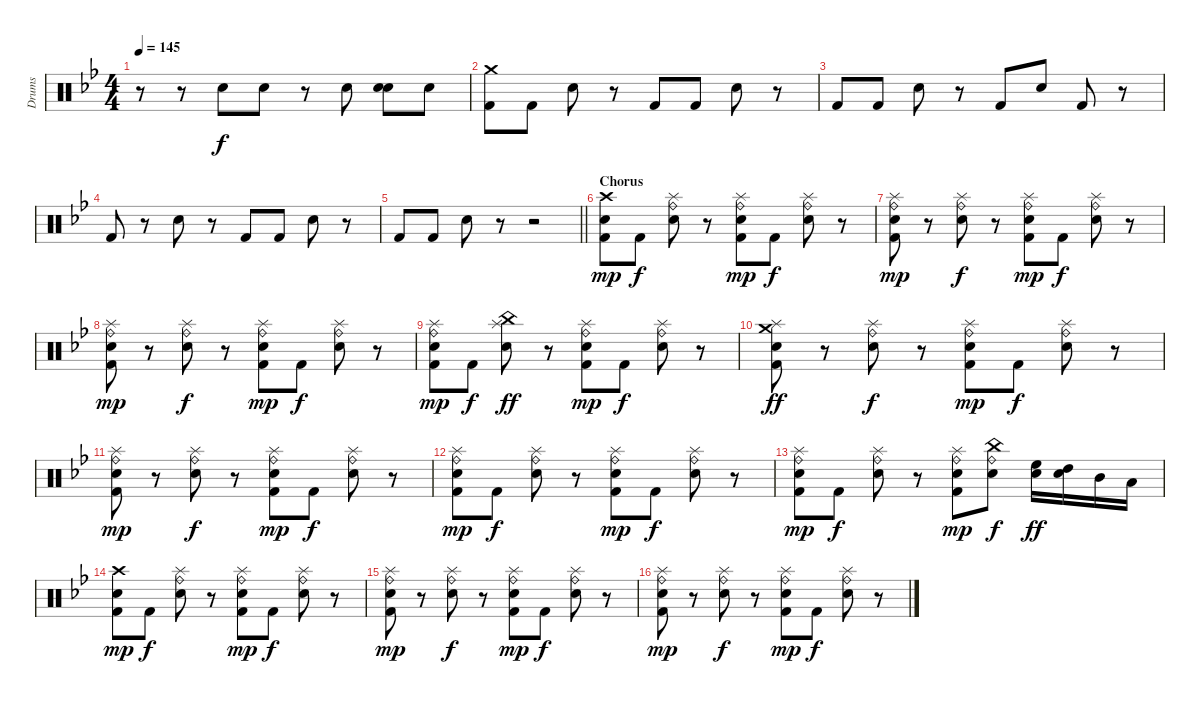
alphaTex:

\track ("Drums" "Drums") {instrument percussion}
\staff {score}
\articulation defaults
\ts (4 4)
\tempo 145
\clef neutral
\ks bb
r.8{dy f} r.8 "Hand Clap (hit)".8 "Hand Clap (hit)".8 r.8 "Electric Snare (hit)".8 ("Hand Clap (hit)" "Electric Snare (hit)").8 "Electric Snare (hit)".8 |
("Crash medium (hit)" "Kick (hit) 2").8 "Kick (hit) 2".8 "Electric Snare (hit)".8 r.8 "Kick (hit) 2".8 "Kick (hit) 2".8 "Electric Snare (hit)".8 r.8 |
"Kick (hit) 2".8 "Kick (hit) 2".8 "Electric Snare (hit)".8 r.8 "Kick (hit) 2".8 "Electric Snare (hit)".8 "Kick (hit) 2".8 r.8 |
"Kick (hit) 2".8 r.8 "Electric Snare (hit)".8 r.8 "Kick (hit) 2".8 "Kick (hit) 2".8 "Electric Snare (hit)".8 r.8 |
\barLineRight lightlight "Kick (hit) 2".8 "Kick (hit) 2".8 "Electric Snare (hit)".8
r.8 r.2 |
\section ("" "Chorus")
("Crash high (hit)" "Electric Snare (hit)" "Kick (hit) 2").8{dy mp} "Kick (hit) 2".8{dy f} ("Ride (bell)" "Splash (hit)" "Electric Snare (hit)").8 r.8 ("Ride (bell)" "Splash (hit)" "Electric Snare (hit)" "Kick (hit) 2").8{dy mp} "Kick (hit) 2".8{dy f} ("Ride (bell)" "Splash (hit)" "Electric Snare (hit)").8 r.8 |
("Ride (bell)" "Splash (hit)" "Electric Snare (hit)" "Kick (hit) 2").8{dy mp} r.8 ("Ride (bell)" "Splash (hit)" "Electric Snare (hit)").8{dy f} r.8 ("Ride (bell)" "Splash (hit)" "Electric Snare (hit)" "Kick (hit) 2").8{dy mp} "Kick (hit) 2".8{dy f} ("Ride (bell)" "Splash (hit)" "Electric Snare (hit)").8 r.8 |
("Ride (bell)" "Splash (hit)" "Electric Snare (hit)" "Kick (hit) 2").8{dy mp} r.8 ("Ride (bell)" "Splash (hit)" "Electric Snare (hit)").8{dy f} r.8 ("Ride (bell)" "Splash (hit)" "Electric Snare (hit)" "Kick (hit) 2").8{dy mp} "Kick (hit) 2".8{dy f} ("Ride (bell)" "Splash (hit)" "Electric Snare (hit)").8 r.8 |
("Ride (bell)" "Splash (hit)" "Electric Snare (hit)" "Kick (hit) 2").8{dy mp} "Kick (hit) 2".8{dy f} ("Splash (hit)" "China (hit)" "Electric Snare (hit)").8{dy ff} r.8 ("Ride (bell)" "Splash (hit)" "Electric Snare (hit)" "Kick (hit) 2").8{dy mp} "Kick (hit) 2".8{dy f} ("Ride (bell)" "Splash (hit)" "Electric Snare (hit)").8 r.8 |
("Crash medium (hit)" "Splash (hit)" "Electric Snare (hit)" "Kick (hit) 2").8{dy ff} r.8 ("Ride (bell)" "Splash (hit)" "Electric Snare (hit)").8{dy f} r.8 ("Ride (bell)" "Splash (hit)" "Electric Snare (hit)" "Kick (hit) 2").8{dy mp} "Kick (hit) 2".8{dy f} ("Ride (bell)" "Splash (hit)" "Electric Snare (hit)").8 r.8 |
("Ride (bell)" "Splash (hit)" "Electric Snare (hit)" "Kick (hit) 2").8{dy mp} r.8 ("Ride (bell)" "Splash (hit)" "Electric Snare (hit)").8{dy f} r.8 ("Ride (bell)" "Splash (hit)" "Electric Snare (hit)" "Kick (hit) 2").8{dy mp} "Kick (hit) 2".8{dy f} ("Ride (bell)" "Splash (hit)" "Electric Snare (hit)").8 r.8 |
("Ride (bell)" "Splash (hit)" "Electric Snare (hit)" "Kick (hit) 2").8{dy mp} "Kick (hit) 2".8{dy f} ("Ride (bell)" "Splash (hit)" "Electric Snare (hit)").8 r.8 ("Ride (bell)" "Splash (hit)" "Electric Snare (hit)" "Kick (hit) 2").8{dy mp} "Kick (hit) 2".8{dy f} ("Ride (bell)" "Splash (hit)" "Electric Snare (hit)").8 r.8 |
("Ride (bell)" "Splash (hit)" "Electric Snare (hit)" "Kick (hit) 2").8{dy mp} "Kick (hit) 2".8{dy f} ("Ride (bell)" "Splash (hit)" "Electric Snare (hit)").8 r.8 ("Ride (bell)" "Splash (hit)" "Electric Snare (hit)" "Kick (hit) 2").8{dy mp} ("Ride (bell)" "China (hit)" "Electric Snare (hit)").8{dy f} ("Electric Snare (hit)" "High Floor Tom (hit)").16{dy ff} ("Electric Snare (hit)" "High Tom (hit)").16 "Mid Tom (hit)".16 "Low Tom (hit)".16 |
("Crash high (hit)" "Electric Snare (hit)" "Kick (hit) 2").8{dy mp} "Kick (hit) 2".8{dy f} ("Ride (bell)" "Splash (hit)" "Electric Snare (hit)").8 r.8 ("Ride (bell)" "Splash (hit)" "Electric Snare (hit)" "Kick (hit) 2").8{dy mp} "Kick (hit) 2".8{dy f} ("Ride (bell)" "Splash (hit)" "Electric Snare (hit)").8 r.8 |
("Ride (bell)" "Splash (hit)" "Electric Snare (hit)" "Kick (hit) 2").8{dy mp} r.8 ("Ride (bell)" "Splash (hit)" "Electric Snare (hit)").8{dy f} r.8 ("Ride (bell)" "Splash (hit)" "Electric Snare (hit)" "Kick (hit) 2").8{dy mp} "Kick (hit) 2".8{dy f} ("Ride (bell)" "Splash (hit)" "Electric Snare (hit)").8 r.8 |
("Ride (bell)" "Splash (hit)" "Electric Snare (hit)" "Kick (hit) 2").8{dy mp} r.8 ("Ride (bell)" "Splash (hit)" "Electric Snare (hit)").8{dy f} r.8 ("Ride (bell)" "Splash (hit)" "Electric Snare (hit)" "Kick (hit) 2").8{dy mp} "Kick (hit) 2".8{dy f} ("Ride (bell)" "Splash (hit)" "Electric Snare (hit)").8 r.8
